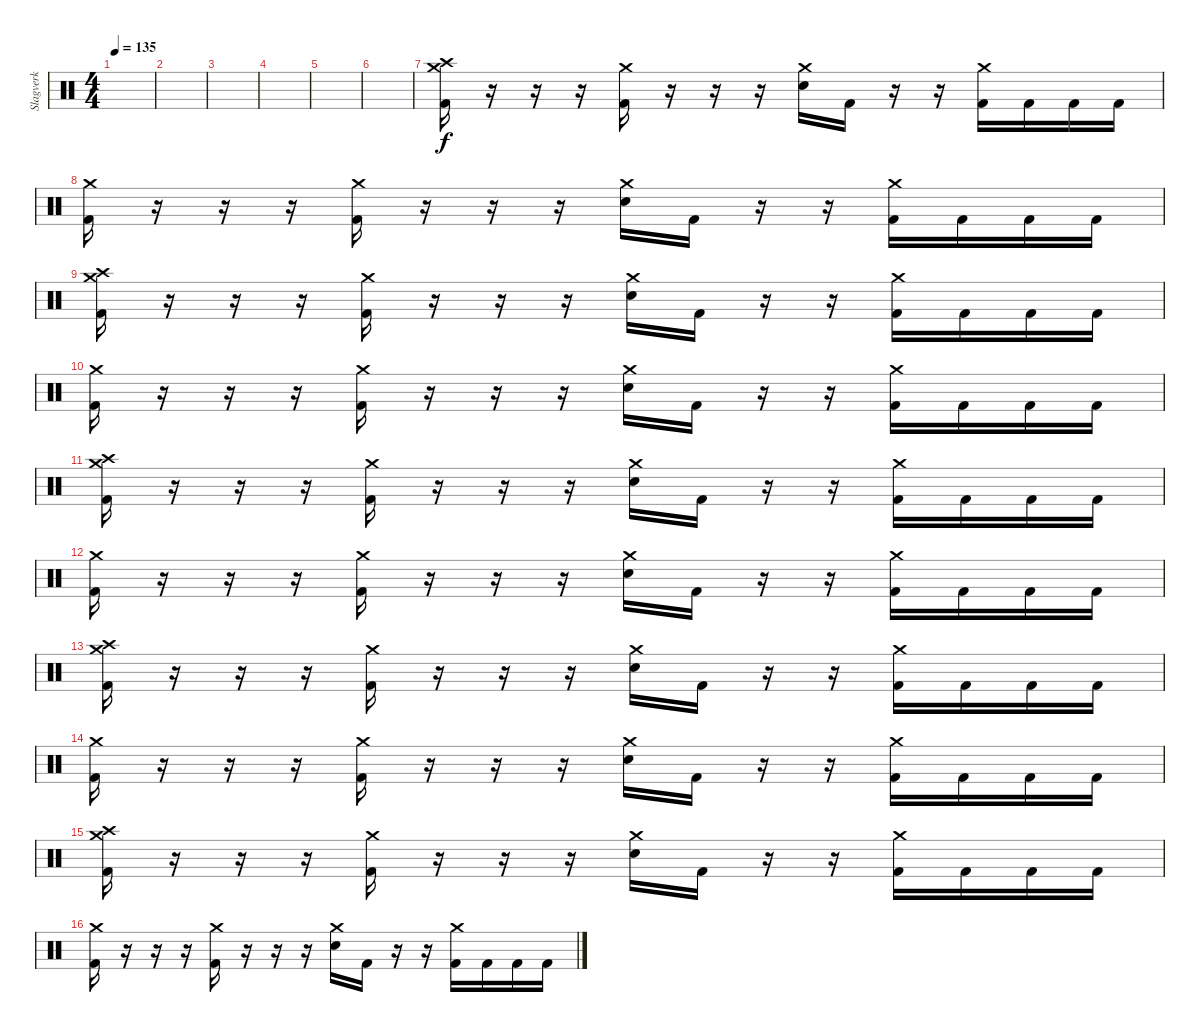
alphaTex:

\track ("Slagverk" "Slagverk") {instrument percussion}
\staff {score}
\articulation defaults
\ts (4 4)
\tempo 135
\clef neutral
\ks c
|
|
|
|
|
|
("Crash medium (hit)" "Crash high (hit)" "Kick (hit) 2").16 r.16 r.16 r.16 ("Crash medium (hit)" "Kick (hit) 2").16 r.16 r.16 r.16 ("Crash medium (hit)" "Electric Snare (hit)").16 "Kick (hit) 2".16 r.16 r.16 ("Crash medium (hit)" "Kick (hit) 2").16 "Kick (hit) 2".16 "Kick (hit) 2".16 "Kick (hit) 2".16 |
("Crash medium (hit)" "Kick (hit) 2").16 r.16 r.16 r.16 ("Crash medium (hit)" "Kick (hit) 2").16 r.16 r.16 r.16 ("Crash medium (hit)" "Electric Snare (hit)").16 "Kick (hit) 2".16 r.16 r.16 ("Crash medium (hit)" "Kick (hit) 2").16 "Kick (hit) 2".16 "Kick (hit) 2".16 "Kick (hit) 2".16 |
("Crash medium (hit)" "Crash high (hit)" "Kick (hit) 2").16 r.16 r.16 r.16 ("Crash medium (hit)" "Kick (hit) 2").16 r.16 r.16 r.16 ("Crash medium (hit)" "Electric Snare (hit)").16 "Kick (hit) 2".16 r.16 r.16 ("Crash medium (hit)" "Kick (hit) 2").16 "Kick (hit) 2".16 "Kick (hit) 2".16 "Kick (hit) 2".16 |
("Crash medium (hit)" "Kick (hit) 2").16 r.16 r.16 r.16 ("Crash medium (hit)" "Kick (hit) 2").16 r.16 r.16 r.16 ("Crash medium (hit)" "Electric Snare (hit)").16 "Kick (hit) 2".16 r.16 r.16 ("Crash medium (hit)" "Kick (hit) 2").16 "Kick (hit) 2".16 "Kick (hit) 2".16 "Kick (hit) 2".16 |
("Crash medium (hit)" "Crash high (hit)" "Kick (hit) 2").16 r.16 r.16 r.16 ("Crash medium (hit)" "Kick (hit) 2").16 r.16 r.16 r.16 ("Crash medium (hit)" "Electric Snare (hit)").16 "Kick (hit) 2".16 r.16 r.16 ("Crash medium (hit)" "Kick (hit) 2").16 "Kick (hit) 2".16 "Kick (hit) 2".16 "Kick (hit) 2".16 |
("Crash medium (hit)" "Kick (hit) 2").16 r.16 r.16 r.16 ("Crash medium (hit)" "Kick (hit) 2").16 r.16 r.16 r.16 ("Crash medium (hit)" "Electric Snare (hit)").16 "Kick (hit) 2".16 r.16 r.16 ("Crash medium (hit)" "Kick (hit) 2").16 "Kick (hit) 2".16 "Kick (hit) 2".16 "Kick (hit) 2".16 |
("Crash medium (hit)" "Crash high (hit)" "Kick (hit) 2").16 r.16 r.16 r.16 ("Crash medium (hit)" "Kick (hit) 2").16 r.16 r.16 r.16 ("Crash medium (hit)" "Electric Snare (hit)").16 "Kick (hit) 2".16 r.16 r.16 ("Crash medium (hit)" "Kick (hit) 2").16 "Kick (hit) 2".16 "Kick (hit) 2".16 "Kick (hit) 2".16 |
("Crash medium (hit)" "Kick (hit) 2").16 r.16 r.16 r.16 ("Crash medium (hit)" "Kick (hit) 2").16 r.16 r.16 r.16 ("Crash medium (hit)" "Electric Snare (hit)").16 "Kick (hit) 2".16 r.16 r.16 ("Crash medium (hit)" "Kick (hit) 2").16 "Kick (hit) 2".16 "Kick (hit) 2".16 "Kick (hit) 2".16 |
("Crash medium (hit)" "Crash high (hit)" "Kick (hit) 2").16 r.16 r.16 r.16 ("Crash medium (hit)" "Kick (hit) 2").16 r.16 r.16 r.16 ("Crash medium (hit)" "Electric Snare (hit)").16 "Kick (hit) 2".16 r.16 r.16 ("Crash medium (hit)" "Kick (hit) 2").16 "Kick (hit) 2".16 "Kick (hit) 2".16 "Kick (hit) 2".16 |
("Crash medium (hit)" "Kick (hit) 2").16 r.16 r.16 r.16 ("Crash medium (hit)" "Kick (hit) 2").16 r.16 r.16 r.16 ("Crash medium (hit)" "Electric Snare (hit)").16 "Kick (hit) 2".16 r.16 r.16 ("Crash medium (hit)" "Kick (hit) 2").16 "Kick (hit) 2".16 "Kick (hit) 2".16 "Kick (hit) 2".16
